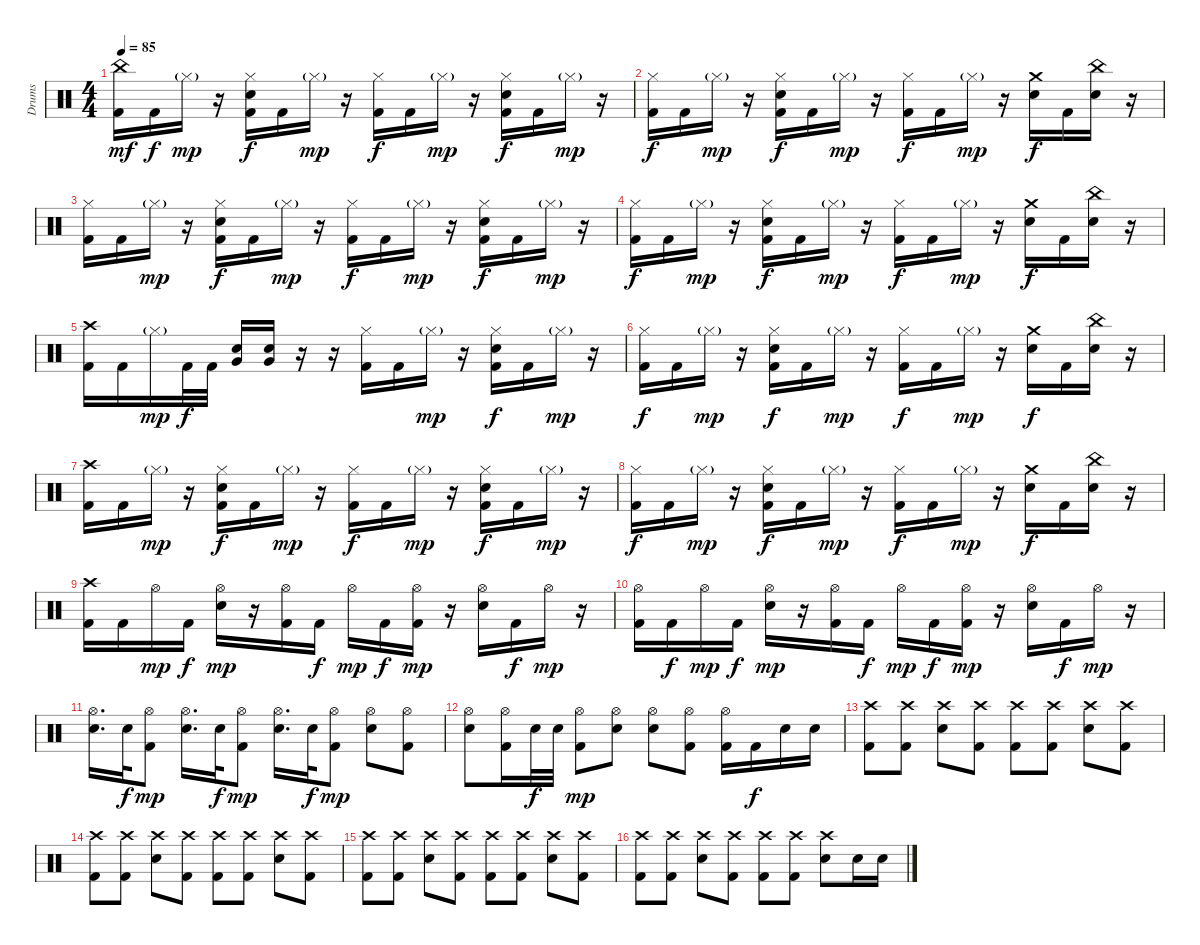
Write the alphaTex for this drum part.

\track ("Drums" "Drums") {instrument percussion}
\staff {score}
\articulation defaults
\ts (4 4)
\tempo 85
\clef neutral
\ks c
("China (hit)" "Kick (hit) 2").16{dy mf} "Kick (hit) 2".16{dy f} "Hi-Hat (closed)"{g}.16{dy mp} r.16 ("Hi-Hat (closed)" "Electric Snare (hit)" "Kick (hit) 2").16{dy f} "Kick (hit) 2".16 "Hi-Hat (closed)"{g}.16{dy mp} r.16 ("Hi-Hat (closed)" "Kick (hit) 2").16{dy f} "Kick (hit) 2".16 "Hi-Hat (closed)"{g}.16{dy mp} r.16 ("Hi-Hat (closed)" "Electric Snare (hit)" "Kick (hit) 2").16{dy f} "Kick (hit) 2".16 "Hi-Hat (closed)"{g}.16{dy mp} r.16 |
("Hi-Hat (closed)" "Kick (hit) 2").16{dy f} "Kick (hit) 2".16 "Hi-Hat (closed)"{g}.16{dy mp} r.16 ("Hi-Hat (closed)" "Electric Snare (hit)" "Kick (hit) 2").16{dy f} "Kick (hit) 2".16 "Hi-Hat (closed)"{g}.16{dy mp} r.16 ("Hi-Hat (closed)" "Kick (hit) 2").16{dy f} "Kick (hit) 2".16 "Hi-Hat (closed)"{g}.16{dy mp} r.16 ("Crash medium (hit)" "Electric Snare (hit)").16{dy f} "Kick (hit) 2".16 ("China (hit)" "Electric Snare (hit)").16 r.16 |
("Hi-Hat (closed)" "Kick (hit) 2").16 "Kick (hit) 2".16 "Hi-Hat (closed)"{g}.16{dy mp} r.16 ("Hi-Hat (closed)" "Electric Snare (hit)" "Kick (hit) 2").16{dy f} "Kick (hit) 2".16 "Hi-Hat (closed)"{g}.16{dy mp} r.16 ("Hi-Hat (closed)" "Kick (hit) 2").16{dy f} "Kick (hit) 2".16 "Hi-Hat (closed)"{g}.16{dy mp} r.16 ("Hi-Hat (closed)" "Electric Snare (hit)" "Kick (hit) 2").16{dy f} "Kick (hit) 2".16 "Hi-Hat (closed)"{g}.16{dy mp} r.16 |
("Hi-Hat (closed)" "Kick (hit) 2").16{dy f} "Kick (hit) 2".16 "Hi-Hat (closed)"{g}.16{dy mp} r.16 ("Hi-Hat (closed)" "Electric Snare (hit)" "Kick (hit) 2").16{dy f} "Kick (hit) 2".16 "Hi-Hat (closed)"{g}.16{dy mp} r.16 ("Hi-Hat (closed)" "Kick (hit) 2").16{dy f} "Kick (hit) 2".16 "Hi-Hat (closed)"{g}.16{dy mp} r.16 ("Crash medium (hit)" "Electric Snare (hit)").16{dy f} "Kick (hit) 2".16 ("China (hit)" "Electric Snare (hit)").16 r.16 |
("Crash high (hit)" "Kick (hit) 2").16 "Kick (hit) 2".16 "Hi-Hat (closed)"{g}.16{dy mp} "Kick (hit) 2".32{dy f} "Kick (hit) 2".32 ("Electric Snare (hit)" "Very Low Tom (hit)").16 ("Electric Snare (hit)" "Very Low Tom (hit)").16 r.16 r.16 ("Hi-Hat (closed)" "Kick (hit) 2").16 "Kick (hit) 2".16 "Hi-Hat (closed)"{g}.16{dy mp} r.16 ("Hi-Hat (closed)" "Electric Snare (hit)" "Kick (hit) 2").16{dy f} "Kick (hit) 2".16 "Hi-Hat (closed)"{g}.16{dy mp} r.16 |
("Hi-Hat (closed)" "Kick (hit) 2").16{dy f} "Kick (hit) 2".16 "Hi-Hat (closed)"{g}.16{dy mp} r.16 ("Hi-Hat (closed)" "Electric Snare (hit)" "Kick (hit) 2").16{dy f} "Kick (hit) 2".16 "Hi-Hat (closed)"{g}.16{dy mp} r.16 ("Hi-Hat (closed)" "Kick (hit) 2").16{dy f} "Kick (hit) 2".16 "Hi-Hat (closed)"{g}.16{dy mp} r.16 ("Crash medium (hit)" "Electric Snare (hit)").16{dy f} "Kick (hit) 2".16 ("China (hit)" "Electric Snare (hit)").16 r.16 |
("Crash high (hit)" "Kick (hit) 2").16 "Kick (hit) 2".16 "Hi-Hat (closed)"{g}.16{dy mp} r.16 ("Hi-Hat (closed)" "Electric Snare (hit)" "Kick (hit) 2").16{dy f} "Kick (hit) 2".16 "Hi-Hat (closed)"{g}.16{dy mp} r.16 ("Hi-Hat (closed)" "Kick (hit) 2").16{dy f} "Kick (hit) 2".16 "Hi-Hat (closed)"{g}.16{dy mp} r.16 ("Hi-Hat (closed)" "Electric Snare (hit)" "Kick (hit) 2").16{dy f} "Kick (hit) 2".16 "Hi-Hat (closed)"{g}.16{dy mp} r.16 |
("Hi-Hat (closed)" "Kick (hit) 2").16{dy f} "Kick (hit) 2".16 "Hi-Hat (closed)"{g}.16{dy mp} r.16 ("Hi-Hat (closed)" "Electric Snare (hit)" "Kick (hit) 2").16{dy f} "Kick (hit) 2".16 "Hi-Hat (closed)"{g}.16{dy mp} r.16 ("Hi-Hat (closed)" "Kick (hit) 2").16{dy f} "Kick (hit) 2".16 "Hi-Hat (closed)"{g}.16{dy mp} r.16 ("Crash medium (hit)" "Electric Snare (hit)").16{dy f} "Kick (hit) 2".16 ("China (hit)" "Electric Snare (hit)").16 r.16 |
("Crash high (hit)" "Kick (hit) 2").16 "Kick (hit) 2".16 "Hi-Hat (open)".16{dy mp} "Kick (hit) 2".16{dy f} ("Hi-Hat (open)" "Electric Snare (hit)").16{dy mp} r.16 ("Hi-Hat (open)" "Kick (hit) 2").16 "Kick (hit) 2".16{dy f} "Hi-Hat (open)".16{dy mp} "Kick (hit) 2".16{dy f} ("Hi-Hat (open)" "Kick (hit) 2").16{dy mp} r.16 ("Hi-Hat (open)" "Electric Snare (hit)").16 "Kick (hit) 2".16{dy f} "Hi-Hat (open)".16{dy mp} r.16 |
("Hi-Hat (open)" "Kick (hit) 2").16 "Kick (hit) 2".16{dy f} "Hi-Hat (open)".16{dy mp} "Kick (hit) 2".16{dy f} ("Hi-Hat (open)" "Electric Snare (hit)").16{dy mp} r.16 ("Hi-Hat (open)" "Kick (hit) 2").16 "Kick (hit) 2".16{dy f} "Hi-Hat (open)".16{dy mp} "Kick (hit) 2".16{dy f} ("Hi-Hat (open)" "Kick (hit) 2").16{dy mp} r.16 ("Hi-Hat (open)" "Electric Snare (hit)").16 "Kick (hit) 2".16{dy f} "Hi-Hat (open)".16{dy mp} r.16 |
("Hi-Hat (open)" "Electric Snare (hit)").16{d} "Electric Snare (hit)".32{dy f} ("Hi-Hat (open)" "Kick (hit) 2").8{dy mp} ("Hi-Hat (open)" "Electric Snare (hit)").16{d} "Electric Snare (hit)".32{dy f} ("Hi-Hat (open)" "Kick (hit) 2").8{dy mp} ("Hi-Hat (open)" "Electric Snare (hit)").16{d} "Electric Snare (hit)".32{dy f} ("Hi-Hat (open)" "Kick (hit) 2").8{dy mp} ("Hi-Hat (open)" "Electric Snare (hit)").8 ("Hi-Hat (open)" "Kick (hit) 2").8 |
("Hi-Hat (open)" "Electric Snare (hit)").8 ("Hi-Hat (open)" "Kick (hit) 2").16 "Electric Snare (hit)".32{dy f} "Electric Snare (hit)".32 ("Hi-Hat (open)" "Kick (hit) 2").8{dy mp} ("Hi-Hat (open)" "Electric Snare (hit)").8 ("Hi-Hat (open)" "Electric Snare (hit)").8 ("Hi-Hat (open)" "Kick (hit) 2").8 ("Hi-Hat (open)" "Kick (hit) 2").16 "Kick (hit) 2".16{dy f} "Electric Snare (hit)".16 "Electric Snare (hit)".16 |
("Crash high (hit)" "Kick (hit) 2").8 ("Crash high (hit)" "Kick (hit) 2").8 ("Crash high (hit)" "Electric Snare (hit)").8 ("Crash high (hit)" "Kick (hit) 2").8 ("Crash high (hit)" "Kick (hit) 2").8 ("Crash high (hit)" "Kick (hit) 2").8 ("Crash high (hit)" "Electric Snare (hit)").8 ("Crash high (hit)" "Kick (hit) 2").8 |
("Crash high (hit)" "Kick (hit) 2").8 ("Crash high (hit)" "Kick (hit) 2").8 ("Crash high (hit)" "Electric Snare (hit)").8 ("Crash high (hit)" "Kick (hit) 2").8 ("Crash high (hit)" "Kick (hit) 2").8 ("Crash high (hit)" "Kick (hit) 2").8 ("Crash high (hit)" "Electric Snare (hit)").8 ("Crash high (hit)" "Kick (hit) 2").8 |
("Crash high (hit)" "Kick (hit) 2").8 ("Crash high (hit)" "Kick (hit) 2").8 ("Crash high (hit)" "Electric Snare (hit)").8 ("Crash high (hit)" "Kick (hit) 2").8 ("Crash high (hit)" "Kick (hit) 2").8 ("Crash high (hit)" "Kick (hit) 2").8 ("Crash high (hit)" "Electric Snare (hit)").8 ("Crash high (hit)" "Kick (hit) 2").8 |
("Crash high (hit)" "Kick (hit) 2").8 ("Crash high (hit)" "Kick (hit) 2").8 ("Crash high (hit)" "Electric Snare (hit)").8 ("Crash high (hit)" "Kick (hit) 2").8 ("Crash high (hit)" "Kick (hit) 2").8 ("Crash high (hit)" "Kick (hit) 2").8 ("Crash high (hit)" "Electric Snare (hit)").8 "Electric Snare (hit)".16 "Electric Snare (hit)".16
